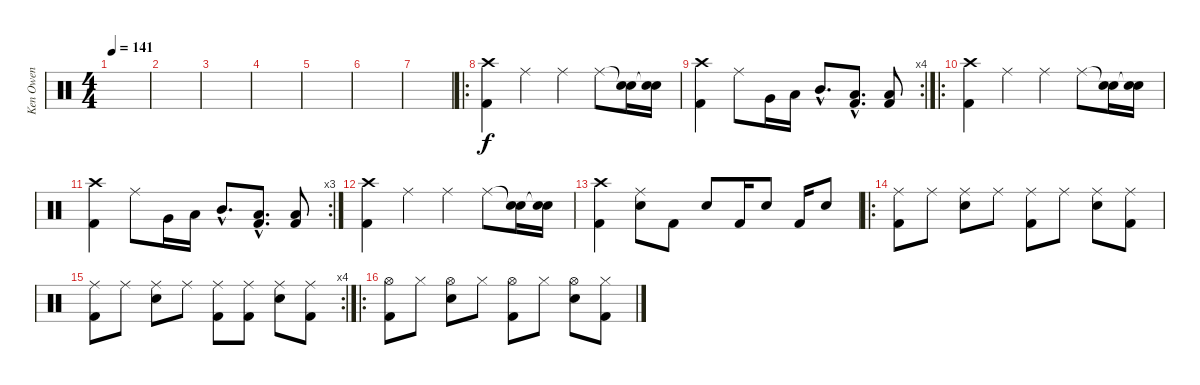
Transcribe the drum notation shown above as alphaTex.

\track ("Ken Owen" "Ken Owen") {instrument percussion}
\staff {score}
\articulation defaults
\ts (4 4)
\tempo 141
\clef neutral
\ks c
|
|
|
|
|
|
|
\ro
("Crash high (hit)" "Kick (hit) 2").4 "Ride (middle)".4 "Ride (middle)".4 "Ride (middle)".8 ("Snare (hit)"{t} "Electric Snare (hit)").16 ("Snare (hit)"{t} "Electric Snare (hit)").16 |
\rc 4
("Crash high (hit)" "Kick (hit) 2").4 "Ride (middle)".8 "Very Low Tom (hit)".16 "Low Tom (hit)".16 "Mid Tom (hit)"{hac}.8{d} ("Low Tom (hit)"{hac} "Kick (hit) 2"{hac}).8{d} ("Low Floor Tom (hit)" "Kick (hit) 2").8 |
\ro
("Crash high (hit)" "Kick (hit) 2").4 "Ride (middle)".4 "Ride (middle)".4 "Ride (middle)".8 ("Snare (hit)"{t} "Electric Snare (hit)").16 ("Snare (hit)"{t} "Electric Snare (hit)").16 |
\rc 3
("Crash high (hit)" "Kick (hit) 2").4 "Ride (middle)".8 "Very Low Tom (hit)".16 "Low Tom (hit)".16 "Mid Tom (hit)"{hac}.8{d} ("Low Tom (hit)"{hac} "Kick (hit) 2"{hac}).8{d} ("Low Floor Tom (hit)" "Kick (hit) 2").8 |
("Crash high (hit)" "Kick (hit) 2").4 "Ride (middle)".4 "Ride (middle)".4 "Ride (middle)".8 ("Snare (hit)"{t} "Electric Snare (hit)").16 ("Snare (hit)"{t} "Electric Snare (hit)").16 |
("Crash high (hit)" "Kick (hit) 2").4 ("Ride (middle)" "Electric Snare (hit)").8 "Kick (hit) 2".8 "Electric Snare (hit)".8 "Kick (hit) 2".16 "Electric Snare (hit)".8 "Kick (hit) 2".16 "Electric Snare (hit)".8 |
\ro
("Ride (middle)" "Kick (hit) 2").8 "Ride (middle)".8 ("Ride (middle)" "Electric Snare (hit)").8 "Ride (middle)".8 ("Ride (middle)" "Kick (hit) 2").8 "Ride (middle)".8 ("Ride (middle)" "Electric Snare (hit)").8 ("Ride (middle)" "Kick (hit) 2").8 |
\rc 4
("Ride (middle)" "Kick (hit) 2").8 "Ride (middle)".8 ("Ride (middle)" "Electric Snare (hit)").8 "Ride (middle)".8 ("Ride (middle)" "Kick (hit) 2").8 ("Ride (middle)" "Kick (hit) 2").8 ("Ride (middle)" "Electric Snare (hit)").8 ("Ride (middle)" "Kick (hit) 2").8 |
\ro
("Hi-Hat (open)" "Kick (hit) 2").8 "Hi-Hat (closed)".8 ("Hi-Hat (open)" "Electric Snare (hit)").8 "Hi-Hat (closed)".8 ("Hi-Hat (open)" "Kick (hit) 2").8 "Hi-Hat (closed)".8 ("Hi-Hat (open)" "Electric Snare (hit)").8 ("Hi-Hat (closed)" "Kick (hit) 2").8
